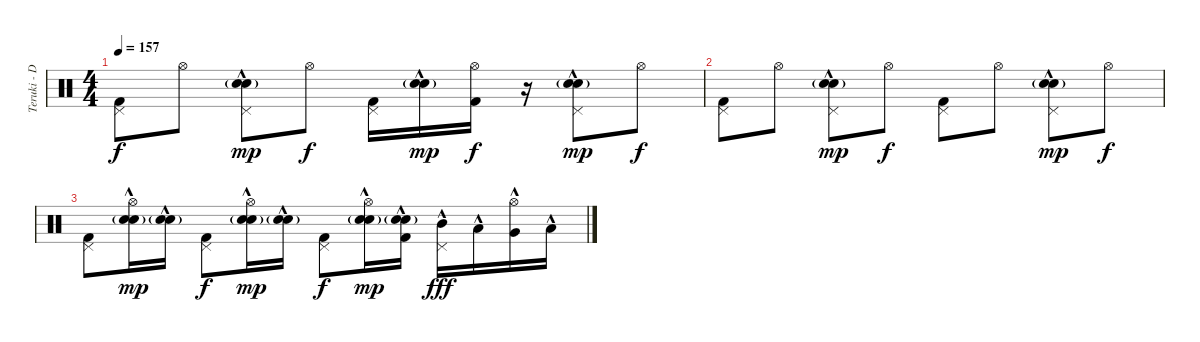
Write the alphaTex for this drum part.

\track ("Teruki - Drums" "Teruki - D") {instrument percussion}
\staff {score}
\articulation defaults
\ts (4 4)
\tempo 157
\clef neutral
\ks c
("Pedal Hi-Hat (hit)" "Kick (hit) 2").8{dy f} "Hi-Hat (open)".8 ("Pedal Hi-Hat (hit)" "Electric Snare (hit)"{hac} "Snare (hit) 2"{g}).8{dy mp} "Hi-Hat (open)".8{dy f} ("Pedal Hi-Hat (hit)" "Kick (hit) 2").16 ("Electric Snare (hit)"{hac} "Snare (hit) 2"{g}).16{dy mp} ("Hi-Hat (open)" "Kick (hit) 2").16{dy f} r.16 ("Pedal Hi-Hat (hit)" "Electric Snare (hit)"{hac} "Snare (hit) 2"{g}).8{dy mp} "Hi-Hat (open)".8{dy f} |
("Pedal Hi-Hat (hit)" "Kick (hit) 2").8 "Hi-Hat (open)".8 ("Pedal Hi-Hat (hit)" "Electric Snare (hit)"{hac} "Snare (hit) 2"{g}).8{dy mp} "Hi-Hat (open)".8{dy f} ("Pedal Hi-Hat (hit)" "Kick (hit) 2").8 "Hi-Hat (open)".8 ("Pedal Hi-Hat (hit)" "Electric Snare (hit)"{hac} "Snare (hit) 2"{g}).8{dy mp} "Hi-Hat (open)".8{dy f} |
("Pedal Hi-Hat (hit)" "Kick (hit) 2").8 ("Hi-Hat (open)" "Electric Snare (hit)"{hac} "Snare (hit) 2"{g}).16{dy mp} ("Electric Snare (hit)"{hac} "Snare (hit) 2"{g}).16 ("Pedal Hi-Hat (hit)" "Kick (hit) 2").8{dy f} ("Hi-Hat (open)" "Electric Snare (hit)"{hac} "Snare (hit) 2"{g}).16{dy mp} ("Electric Snare (hit)"{hac} "Snare (hit) 2"{g}).16 ("Pedal Hi-Hat (hit)" "Kick (hit) 2").8{dy f} ("Hi-Hat (open)" "Electric Snare (hit)"{hac} "Snare (hit) 2"{g}).16{dy mp} ("Electric Snare (hit)"{hac} "Snare (hit) 2"{g} "Kick (hit) 2").16 ("Pedal Hi-Hat (hit)" "Mid Tom (hit)"{hac}).16{dy fff} "Low Tom (hit)"{hac}.16 ("Hi-Hat (open)" "Very Low Tom (hit)"{hac}).16 "Low Floor Tom (hit)"{hac}.16
